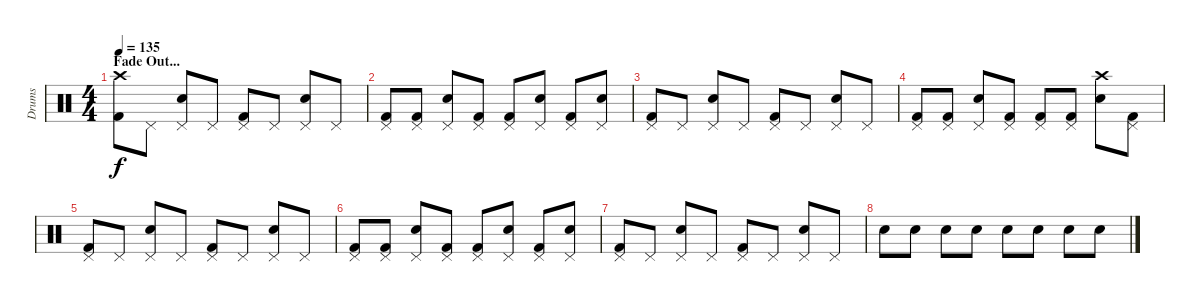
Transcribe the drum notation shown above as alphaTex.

\track ("Drums" "Drums") {instrument percussion}
\staff {score}
\articulation defaults
\ts (4 4)
\section ("" "Fade Out...")
\tempo 135
\clef neutral
\ks c
("Crash high (hit)" "Kick (hit) 2").8{dy f volume 6} "Pedal Hi-Hat (hit)".8 ("Pedal Hi-Hat (hit)" "Snare (hit) 2").8 "Pedal Hi-Hat (hit)".8 ("Pedal Hi-Hat (hit)" "Kick (hit) 2").8 "Pedal Hi-Hat (hit)".8 ("Pedal Hi-Hat (hit)" "Snare (hit) 2").8 "Pedal Hi-Hat (hit)".8 |
("Pedal Hi-Hat (hit)" "Kick (hit) 2").8 ("Pedal Hi-Hat (hit)" "Kick (hit) 2").8 ("Pedal Hi-Hat (hit)" "Snare (hit) 2").8 ("Pedal Hi-Hat (hit)" "Kick (hit) 2").8 ("Pedal Hi-Hat (hit)" "Kick (hit) 2").8 ("Pedal Hi-Hat (hit)" "Snare (hit) 2").8 ("Pedal Hi-Hat (hit)" "Kick (hit) 2").8 ("Pedal Hi-Hat (hit)" "Snare (hit) 2").8 |
("Pedal Hi-Hat (hit)" "Kick (hit) 2").8 "Pedal Hi-Hat (hit)".8 ("Pedal Hi-Hat (hit)" "Snare (hit) 2").8 "Pedal Hi-Hat (hit)".8 ("Pedal Hi-Hat (hit)" "Kick (hit) 2").8 "Pedal Hi-Hat (hit)".8 ("Pedal Hi-Hat (hit)" "Snare (hit) 2").8 "Pedal Hi-Hat (hit)".8 |
("Pedal Hi-Hat (hit)" "Kick (hit) 2").8 ("Pedal Hi-Hat (hit)" "Kick (hit) 2").8 ("Pedal Hi-Hat (hit)" "Snare (hit) 2").8 ("Pedal Hi-Hat (hit)" "Kick (hit) 2").8 ("Pedal Hi-Hat (hit)" "Kick (hit) 2").8 ("Pedal Hi-Hat (hit)" "Kick (hit) 2").8 ("Crash high (hit)" "Snare (hit) 2").8 ("Pedal Hi-Hat (hit)" "Kick (hit) 2").8 |
("Pedal Hi-Hat (hit)" "Kick (hit) 2").8{volume 1} "Pedal Hi-Hat (hit)".8 ("Pedal Hi-Hat (hit)" "Snare (hit) 2").8 "Pedal Hi-Hat (hit)".8 ("Pedal Hi-Hat (hit)" "Kick (hit) 2").8 "Pedal Hi-Hat (hit)".8 ("Pedal Hi-Hat (hit)" "Snare (hit) 2").8 "Pedal Hi-Hat (hit)".8 |
("Pedal Hi-Hat (hit)" "Kick (hit) 2").8 ("Pedal Hi-Hat (hit)" "Kick (hit) 2").8 ("Pedal Hi-Hat (hit)" "Snare (hit) 2").8 ("Pedal Hi-Hat (hit)" "Kick (hit) 2").8 ("Pedal Hi-Hat (hit)" "Kick (hit) 2").8 ("Pedal Hi-Hat (hit)" "Snare (hit) 2").8 ("Pedal Hi-Hat (hit)" "Kick (hit) 2").8 ("Pedal Hi-Hat (hit)" "Snare (hit) 2").8 |
("Pedal Hi-Hat (hit)" "Kick (hit) 2").8 "Pedal Hi-Hat (hit)".8 ("Pedal Hi-Hat (hit)" "Snare (hit) 2").8 "Pedal Hi-Hat (hit)".8 ("Pedal Hi-Hat (hit)" "Kick (hit) 2").8 "Pedal Hi-Hat (hit)".8 ("Pedal Hi-Hat (hit)" "Snare (hit) 2").8 "Pedal Hi-Hat (hit)".8 |
"Snare (hit) 2".8 "Snare (hit) 2".8 "Snare (hit) 2".8 "Snare (hit) 2".8 "Snare (hit) 2".8 "Snare (hit) 2".8 "Snare (hit) 2".8 "Snare (hit) 2".8
